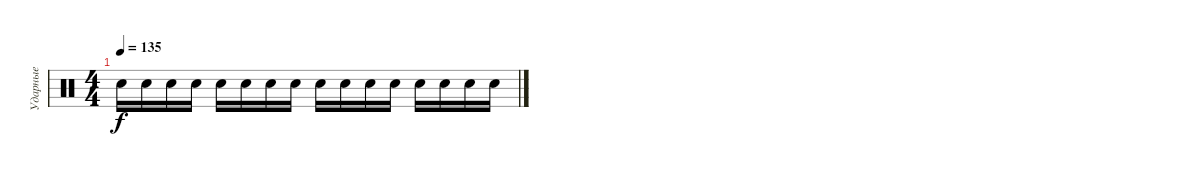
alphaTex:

\track ("Ударные" "Ударные") {instrument percussion}
\staff {score}
\articulation defaults
\ts (4 4)
\tempo 135
\clef neutral
\ks c "Electric Snare (hit)".16{dy f} "Electric Snare (hit)".16 "Electric Snare (hit)".16 "Electric Snare (hit)".16 "Electric Snare (hit)".16 "Electric Snare (hit)".16 "Electric Snare (hit)".16 "Electric Snare (hit)".16 "Electric Snare (hit)".16 "Electric Snare (hit)".16 "Electric Snare (hit)".16 "Electric Snare (hit)".16 "Electric Snare (hit)".16 "Electric Snare (hit)".16 "Electric Snare (hit)".16 "Electric Snare (hit)".16
